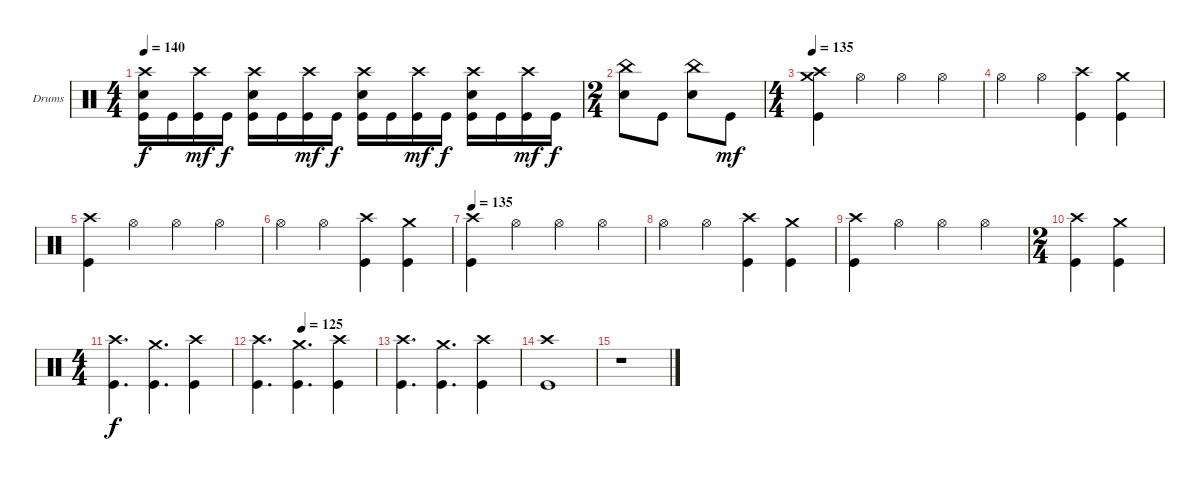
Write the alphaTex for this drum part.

\bracketExtendMode groupsimilarinstruments
\firstSystemTrackNameOrientation horizontal
\otherSystemsTrackNameOrientation horizontal
\track ("Drumkit" "Drums") {instrument percussion}
\staff {score}
\articulation defaults
\ts (4 4)
\tempo 140
\clef neutral
\ks c
("Crash high (hit)" "Snare (hit) 2" "Kick (hit)").16{dy f} "Kick (hit)".16 ("Crash high (hit)" "Kick (hit)").16{dy mf} "Kick (hit)".16{dy f} ("Crash high (hit)" "Snare (hit) 2" "Kick (hit)").16 "Kick (hit)".16 ("Crash high (hit)" "Kick (hit)").16{dy mf} "Kick (hit)".16{dy f} ("Crash high (hit)" "Snare (hit) 2" "Kick (hit)").16 "Kick (hit)".16 ("Crash high (hit)" "Kick (hit)").16{dy mf} "Kick (hit)".16{dy f} ("Crash high (hit)" "Snare (hit) 2" "Kick (hit)").16 "Kick (hit)".16 ("Crash high (hit)" "Kick (hit)").16{dy mf} "Kick (hit)".16{dy f} |
\ts (2 4)
\beaming (8 2 2)
("China (hit)" "Snare (hit) 2").8 "Kick (hit)".8 ("China (hit)" "Snare (hit) 2").8 "Kick (hit)".8{dy mf} |
\ts (4 4)
\beaming (8 2 2 2 2)
\tempo 135
("Crash high (hit)" "Crash medium (hit)" "Kick (hit)").4 "Hi-Hat (open)".4 "Hi-Hat (open)".4 "Hi-Hat (open)".4 |
"Hi-Hat (open)".4 "Hi-Hat (open)".4 ("Crash high (hit)" "Kick (hit)").4 ("Crash medium (hit)" "Kick (hit)").4 |
("Crash high (hit)" "Kick (hit)").4 "Hi-Hat (open)".4 "Hi-Hat (open)".4 "Hi-Hat (open)".4 |
"Hi-Hat (open)".4 "Hi-Hat (open)".4 ("Crash high (hit)" "Kick (hit)").4 ("Crash medium (hit)" "Kick (hit)").4 |
\tempo 135
("Crash high (hit)" "Kick (hit)").4 "Hi-Hat (open)".4 "Hi-Hat (open)".4 "Hi-Hat (open)".4 |
"Hi-Hat (open)".4 "Hi-Hat (open)".4 ("Crash high (hit)" "Kick (hit)").4 ("Crash medium (hit)" "Kick (hit)").4 |
("Crash high (hit)" "Kick (hit)").4 "Hi-Hat (open)".4 "Hi-Hat (open)".4 "Hi-Hat (open)".4 |
\ts (2 4)
\beaming (8 2 2 2 2)
("Crash high (hit)" "Kick (hit)").4 ("Crash medium (hit)" "Kick (hit)").4 |
\ts (4 4)
\beaming (8 2 2 2 2)
("Crash high (hit)" "Kick (hit)").4{d dy f} ("Crash medium (hit)" "Kick (hit)").4{d} ("Crash high (hit)" "Kick (hit)").4 |
\tempo (125 0.375)
("Crash high (hit)" "Kick (hit)").4{d} ("Crash medium (hit)" "Kick (hit)").4{d} ("Crash high (hit)" "Kick (hit)").4 |
("Crash high (hit)" "Kick (hit)").4{d} ("Crash medium (hit)" "Kick (hit)").4{d} ("Crash high (hit)" "Kick (hit)").4 |
("Crash high (hit)" "Kick (hit)").1 |
r.1
